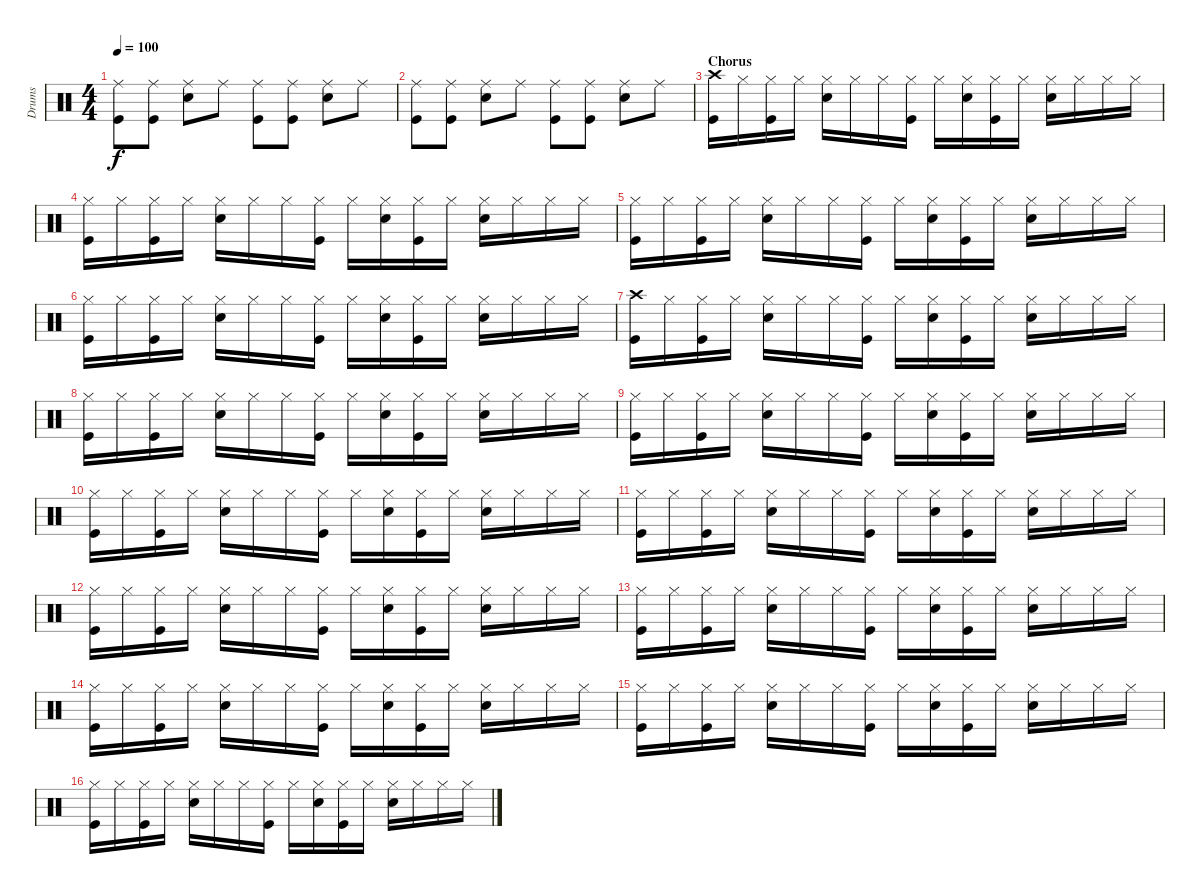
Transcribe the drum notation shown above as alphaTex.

\track ("Drums" "Drums") {instrument percussion}
\staff {score}
\articulation defaults
\ts (4 4)
\tempo 100
\clef neutral
\ks c
("Ride (middle)" "Kick (hit)").8{dy f} ("Ride (middle)" "Kick (hit)").8 ("Ride (middle)" "Electric Snare (hit)").8 "Ride (middle)".8 ("Ride (middle)" "Kick (hit)").8 ("Ride (middle)" "Kick (hit)").8 ("Ride (middle)" "Electric Snare (hit)").8 "Ride (middle)".8 |
("Ride (middle)" "Kick (hit)").8 ("Ride (middle)" "Kick (hit)").8 ("Ride (middle)" "Electric Snare (hit)").8 "Ride (middle)".8 ("Ride (middle)" "Kick (hit)").8 ("Ride (middle)" "Kick (hit)").8 ("Ride (middle)" "Electric Snare (hit)").8 "Ride (middle)".8 |
\section ("" "Chorus")
("Crash high (hit)" "Kick (hit)").16 "Hi-Hat (closed)"{x}.16 ("Hi-Hat (closed)" "Kick (hit)").16 "Hi-Hat (closed)"{x}.16 ("Hi-Hat (closed)" "Electric Snare (hit)").16 "Hi-Hat (closed)"{x}.16 "Hi-Hat (closed)".16 ("Hi-Hat (closed)"{x} "Kick (hit)").16 "Hi-Hat (closed)".16 ("Hi-Hat (closed)"{x} "Electric Snare (hit)").16 ("Hi-Hat (closed)" "Kick (hit)").16 "Hi-Hat (closed)"{x}.16 ("Hi-Hat (closed)" "Electric Snare (hit)").16 "Hi-Hat (closed)"{x}.16 "Hi-Hat (closed)".16 "Hi-Hat (closed)"{x}.16 |
("Hi-Hat (closed)" "Kick (hit)").16 "Hi-Hat (closed)"{x}.16 ("Hi-Hat (closed)" "Kick (hit)").16 "Hi-Hat (closed)"{x}.16 ("Hi-Hat (closed)" "Electric Snare (hit)").16 "Hi-Hat (closed)"{x}.16 "Hi-Hat (closed)".16 ("Hi-Hat (closed)"{x} "Kick (hit)").16 "Hi-Hat (closed)".16 ("Hi-Hat (closed)"{x} "Electric Snare (hit)").16 ("Hi-Hat (closed)" "Kick (hit)").16 "Hi-Hat (closed)"{x}.16 ("Hi-Hat (closed)" "Electric Snare (hit)").16 "Hi-Hat (closed)"{x}.16 "Hi-Hat (closed)".16 "Hi-Hat (closed)"{x}.16 |
("Hi-Hat (closed)" "Kick (hit)").16 "Hi-Hat (closed)"{x}.16 ("Hi-Hat (closed)" "Kick (hit)").16 "Hi-Hat (closed)"{x}.16 ("Hi-Hat (closed)" "Electric Snare (hit)").16 "Hi-Hat (closed)"{x}.16 "Hi-Hat (closed)".16 ("Hi-Hat (closed)"{x} "Kick (hit)").16 "Hi-Hat (closed)".16 ("Hi-Hat (closed)"{x} "Electric Snare (hit)").16 ("Hi-Hat (closed)" "Kick (hit)").16 "Hi-Hat (closed)"{x}.16 ("Hi-Hat (closed)" "Electric Snare (hit)").16 "Hi-Hat (closed)"{x}.16 "Hi-Hat (closed)".16 "Hi-Hat (closed)"{x}.16 |
("Hi-Hat (closed)" "Kick (hit)").16 "Hi-Hat (closed)"{x}.16 ("Hi-Hat (closed)" "Kick (hit)").16 "Hi-Hat (closed)"{x}.16 ("Hi-Hat (closed)" "Electric Snare (hit)").16 "Hi-Hat (closed)"{x}.16 "Hi-Hat (closed)".16 ("Hi-Hat (closed)"{x} "Kick (hit)").16 "Hi-Hat (closed)".16 ("Hi-Hat (closed)"{x} "Electric Snare (hit)").16 ("Hi-Hat (closed)" "Kick (hit)").16 "Hi-Hat (closed)"{x}.16 ("Hi-Hat (closed)" "Electric Snare (hit)").16 "Hi-Hat (closed)"{x}.16 "Hi-Hat (closed)".16 "Hi-Hat (closed)"{x}.16 |
("Crash high (hit)" "Kick (hit)").16 "Hi-Hat (closed)"{x}.16 ("Hi-Hat (closed)" "Kick (hit)").16 "Hi-Hat (closed)"{x}.16 ("Hi-Hat (closed)" "Electric Snare (hit)").16 "Hi-Hat (closed)"{x}.16 "Hi-Hat (closed)".16 ("Hi-Hat (closed)"{x} "Kick (hit)").16 "Hi-Hat (closed)".16 ("Hi-Hat (closed)"{x} "Electric Snare (hit)").16 ("Hi-Hat (closed)" "Kick (hit)").16 "Hi-Hat (closed)"{x}.16 ("Hi-Hat (closed)" "Electric Snare (hit)").16 "Hi-Hat (closed)"{x}.16 "Hi-Hat (closed)".16 "Hi-Hat (closed)"{x}.16 |
("Hi-Hat (closed)" "Kick (hit)").16 "Hi-Hat (closed)"{x}.16 ("Hi-Hat (closed)" "Kick (hit)").16 "Hi-Hat (closed)"{x}.16 ("Hi-Hat (closed)" "Electric Snare (hit)").16 "Hi-Hat (closed)"{x}.16 "Hi-Hat (closed)".16 ("Hi-Hat (closed)"{x} "Kick (hit)").16 "Hi-Hat (closed)".16 ("Hi-Hat (closed)"{x} "Electric Snare (hit)").16 ("Hi-Hat (closed)" "Kick (hit)").16 "Hi-Hat (closed)"{x}.16 ("Hi-Hat (closed)" "Electric Snare (hit)").16 "Hi-Hat (closed)"{x}.16 "Hi-Hat (closed)".16 "Hi-Hat (closed)"{x}.16 |
("Hi-Hat (closed)" "Kick (hit)").16 "Hi-Hat (closed)"{x}.16 ("Hi-Hat (closed)" "Kick (hit)").16 "Hi-Hat (closed)"{x}.16 ("Hi-Hat (closed)" "Electric Snare (hit)").16 "Hi-Hat (closed)"{x}.16 "Hi-Hat (closed)".16 ("Hi-Hat (closed)"{x} "Kick (hit)").16 "Hi-Hat (closed)".16 ("Hi-Hat (closed)"{x} "Electric Snare (hit)").16 ("Hi-Hat (closed)" "Kick (hit)").16 "Hi-Hat (closed)"{x}.16 ("Hi-Hat (closed)" "Electric Snare (hit)").16 "Hi-Hat (closed)"{x}.16 "Hi-Hat (closed)".16 "Hi-Hat (closed)"{x}.16 |
("Hi-Hat (closed)" "Kick (hit)").16 "Hi-Hat (closed)"{x}.16 ("Hi-Hat (closed)" "Kick (hit)").16 "Hi-Hat (closed)"{x}.16 ("Hi-Hat (closed)" "Electric Snare (hit)").16 "Hi-Hat (closed)"{x}.16 "Hi-Hat (closed)".16 ("Hi-Hat (closed)"{x} "Kick (hit)").16 "Hi-Hat (closed)".16 ("Hi-Hat (closed)"{x} "Electric Snare (hit)").16 ("Hi-Hat (closed)" "Kick (hit)").16 "Hi-Hat (closed)"{x}.16 ("Hi-Hat (closed)" "Electric Snare (hit)").16 "Hi-Hat (closed)"{x}.16 "Hi-Hat (closed)".16 "Hi-Hat (closed)"{x}.16 |
("Hi-Hat (closed)" "Kick (hit)").16 "Hi-Hat (closed)"{x}.16 ("Hi-Hat (closed)" "Kick (hit)").16 "Hi-Hat (closed)"{x}.16 ("Hi-Hat (closed)" "Electric Snare (hit)").16 "Hi-Hat (closed)"{x}.16 "Hi-Hat (closed)".16 ("Hi-Hat (closed)"{x} "Kick (hit)").16 "Hi-Hat (closed)".16 ("Hi-Hat (closed)"{x} "Electric Snare (hit)").16 ("Hi-Hat (closed)" "Kick (hit)").16 "Hi-Hat (closed)"{x}.16 ("Hi-Hat (closed)" "Electric Snare (hit)").16 "Hi-Hat (closed)"{x}.16 "Hi-Hat (closed)".16 "Hi-Hat (closed)"{x}.16 |
("Hi-Hat (closed)" "Kick (hit)").16 "Hi-Hat (closed)"{x}.16 ("Hi-Hat (closed)" "Kick (hit)").16 "Hi-Hat (closed)"{x}.16 ("Hi-Hat (closed)" "Electric Snare (hit)").16 "Hi-Hat (closed)"{x}.16 "Hi-Hat (closed)".16 ("Hi-Hat (closed)"{x} "Kick (hit)").16 "Hi-Hat (closed)".16 ("Hi-Hat (closed)"{x} "Electric Snare (hit)").16 ("Hi-Hat (closed)" "Kick (hit)").16 "Hi-Hat (closed)"{x}.16 ("Hi-Hat (closed)" "Electric Snare (hit)").16 "Hi-Hat (closed)"{x}.16 "Hi-Hat (closed)".16 "Hi-Hat (closed)"{x}.16 |
("Hi-Hat (closed)" "Kick (hit)").16 "Hi-Hat (closed)"{x}.16 ("Hi-Hat (closed)" "Kick (hit)").16 "Hi-Hat (closed)"{x}.16 ("Hi-Hat (closed)" "Electric Snare (hit)").16 "Hi-Hat (closed)"{x}.16 "Hi-Hat (closed)".16 ("Hi-Hat (closed)"{x} "Kick (hit)").16 "Hi-Hat (closed)".16 ("Hi-Hat (closed)"{x} "Electric Snare (hit)").16 ("Hi-Hat (closed)" "Kick (hit)").16 "Hi-Hat (closed)"{x}.16 ("Hi-Hat (closed)" "Electric Snare (hit)").16 "Hi-Hat (closed)"{x}.16 "Hi-Hat (closed)".16 "Hi-Hat (closed)"{x}.16 |
("Hi-Hat (closed)" "Kick (hit)").16 "Hi-Hat (closed)"{x}.16 ("Hi-Hat (closed)" "Kick (hit)").16 "Hi-Hat (closed)"{x}.16 ("Hi-Hat (closed)" "Electric Snare (hit)").16 "Hi-Hat (closed)"{x}.16 "Hi-Hat (closed)".16 ("Hi-Hat (closed)"{x} "Kick (hit)").16 "Hi-Hat (closed)".16 ("Hi-Hat (closed)"{x} "Electric Snare (hit)").16 ("Hi-Hat (closed)" "Kick (hit)").16 "Hi-Hat (closed)"{x}.16 ("Hi-Hat (closed)" "Electric Snare (hit)").16 "Hi-Hat (closed)"{x}.16 "Hi-Hat (closed)".16 "Hi-Hat (closed)"{x}.16 |
("Hi-Hat (closed)" "Kick (hit)").16 "Hi-Hat (closed)"{x}.16 ("Hi-Hat (closed)" "Kick (hit)").16 "Hi-Hat (closed)"{x}.16 ("Hi-Hat (closed)" "Electric Snare (hit)").16 "Hi-Hat (closed)"{x}.16 "Hi-Hat (closed)".16 ("Hi-Hat (closed)"{x} "Kick (hit)").16 "Hi-Hat (closed)".16 ("Hi-Hat (closed)"{x} "Electric Snare (hit)").16 ("Hi-Hat (closed)" "Kick (hit)").16 "Hi-Hat (closed)"{x}.16 ("Hi-Hat (closed)" "Electric Snare (hit)").16 "Hi-Hat (closed)"{x}.16 "Hi-Hat (closed)".16 "Hi-Hat (closed)"{x}.16 |
("Hi-Hat (closed)" "Kick (hit)").16 "Hi-Hat (closed)"{x}.16 ("Hi-Hat (closed)" "Kick (hit)").16 "Hi-Hat (closed)"{x}.16 ("Hi-Hat (closed)" "Electric Snare (hit)").16 "Hi-Hat (closed)"{x}.16 "Hi-Hat (closed)".16 ("Hi-Hat (closed)"{x} "Kick (hit)").16 "Hi-Hat (closed)".16 ("Hi-Hat (closed)"{x} "Electric Snare (hit)").16 ("Hi-Hat (closed)" "Kick (hit)").16 "Hi-Hat (closed)"{x}.16 ("Hi-Hat (closed)" "Electric Snare (hit)").16 "Hi-Hat (closed)"{x}.16 "Hi-Hat (closed)".16 "Hi-Hat (closed)"{x}.16
